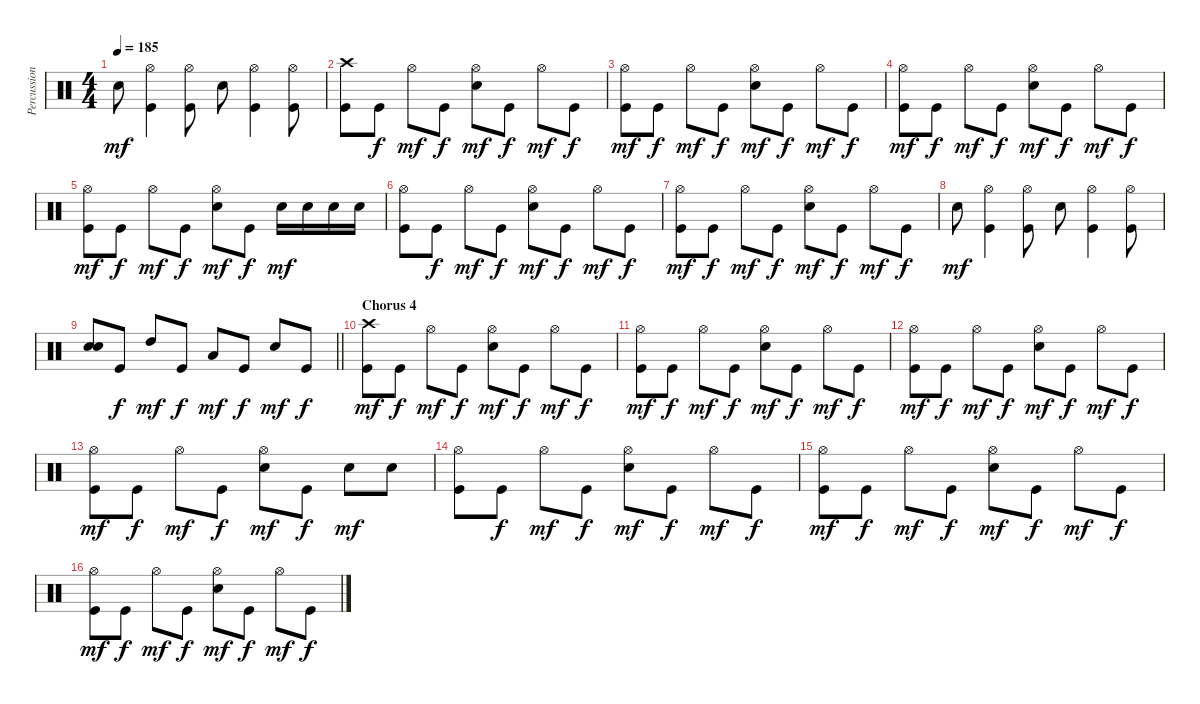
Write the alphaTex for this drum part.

\track ("Percussion" "Percussion") {instrument percussion}
\staff {score}
\articulation defaults
\ts (4 4)
\tempo 185
\clef neutral
\ks c "Snare (hit) 2".8{dy mf}
("Hi-Hat (open)" "Kick (hit)").4 ("Hi-Hat (open)" "Kick (hit)").8 "Snare (hit) 2".8 ("Kick (hit)" "Hi-Hat (open)").4 ("Kick (hit)" "Hi-Hat (open)").8 |
("Crash high (hit)" "Kick (hit)").8 "Kick (hit)".8{dy f} "Hi-Hat (open)".8{dy mf} "Kick (hit)".8{dy f} ("Snare (hit) 2" "Hi-Hat (open)").8{dy mf} "Kick (hit)".8{dy f} "Hi-Hat (open)".8{dy mf} "Kick (hit)".8{dy f} |
("Kick (hit)" "Hi-Hat (open)").8{dy mf} "Kick (hit)".8{dy f} "Hi-Hat (open)".8{dy mf} "Kick (hit)".8{dy f} ("Snare (hit) 2" "Hi-Hat (open)").8{dy mf} "Kick (hit)".8{dy f} "Hi-Hat (open)".8{dy mf} "Kick (hit)".8{dy f} |
("Hi-Hat (open)" "Kick (hit)").8{dy mf} "Kick (hit)".8{dy f} "Hi-Hat (open)".8{dy mf} "Kick (hit)".8{dy f} ("Snare (hit) 2" "Hi-Hat (open)").8{dy mf} "Kick (hit)".8{dy f} "Hi-Hat (open)".8{dy mf} "Kick (hit)".8{dy f} |
("Hi-Hat (open)" "Kick (hit)").8{dy mf} "Kick (hit)".8{dy f} "Hi-Hat (open)".8{dy mf} "Kick (hit)".8{dy f} ("Snare (hit) 2" "Hi-Hat (open)").8{dy mf} "Kick (hit)".8{dy f} "Snare (hit) 2".16{dy mf} "Snare (hit) 2".16 "Snare (hit) 2".16 "Snare (hit) 2".16 |
("Kick (hit)" "Hi-Hat (open)").8 "Kick (hit)".8{dy f} "Hi-Hat (open)".8{dy mf} "Kick (hit)".8{dy f} ("Snare (hit) 2" "Hi-Hat (open)").8{dy mf} "Kick (hit)".8{dy f} "Hi-Hat (open)".8{dy mf} "Kick (hit)".8{dy f} |
("Kick (hit)" "Hi-Hat (open)").8{dy mf} "Kick (hit)".8{dy f} "Hi-Hat (open)".8{dy mf} "Kick (hit)".8{dy f} ("Snare (hit) 2" "Hi-Hat (open)").8{dy mf} "Kick (hit)".8{dy f} "Hi-Hat (open)".8{dy mf} "Kick (hit)".8{dy f} |
"Snare (hit) 2".8{dy mf} ("Hi-Hat (open)" "Kick (hit)").4 ("Hi-Hat (open)" "Kick (hit)").8 "Snare (hit) 2".8 ("Kick (hit)" "Hi-Hat (open)").4 ("Kick (hit)" "Hi-Hat (open)").8 |
\barLineRight lightlight
("Snare (hit) 2" "Snare (hit) 2").8 "Kick (hit)".8{dy f} "High Tom (hit)".8{dy mf} "Kick (hit)".8{dy f} "Low Tom (hit)".8{dy mf} "Kick (hit)".8{dy f} "Snare (hit) 2".8{dy mf} "Kick (hit)".8{dy f} |
\section ("" "Chorus 4")
("Crash high (hit)" "Kick (hit)").8{dy mf} "Kick (hit)".8{dy f} "Hi-Hat (open)".8{dy mf} "Kick (hit)".8{dy f} ("Snare (hit) 2" "Hi-Hat (open)").8{dy mf} "Kick (hit)".8{dy f} "Hi-Hat (open)".8{dy mf} "Kick (hit)".8{dy f} |
("Kick (hit)" "Hi-Hat (open)").8{dy mf} "Kick (hit)".8{dy f} "Hi-Hat (open)".8{dy mf} "Kick (hit)".8{dy f} ("Snare (hit) 2" "Hi-Hat (open)").8{dy mf} "Kick (hit)".8{dy f} "Hi-Hat (open)".8{dy mf} "Kick (hit)".8{dy f} |
("Hi-Hat (open)" "Kick (hit)").8{dy mf} "Kick (hit)".8{dy f} "Hi-Hat (open)".8{dy mf} "Kick (hit)".8{dy f} ("Snare (hit) 2" "Hi-Hat (open)").8{dy mf} "Kick (hit)".8{dy f} "Hi-Hat (open)".8{dy mf} "Kick (hit)".8{dy f} |
("Hi-Hat (open)" "Kick (hit)").8{dy mf} "Kick (hit)".8{dy f} "Hi-Hat (open)".8{dy mf} "Kick (hit)".8{dy f} ("Snare (hit) 2" "Hi-Hat (open)").8{dy mf} "Kick (hit)".8{dy f} "Snare (hit) 2".8{dy mf} "Snare (hit) 2".8 |
("Hi-Hat (open)" "Kick (hit)").8 "Kick (hit)".8{dy f} "Hi-Hat (open)".8{dy mf} "Kick (hit)".8{dy f} ("Snare (hit) 2" "Hi-Hat (open)").8{dy mf} "Kick (hit)".8{dy f} "Hi-Hat (open)".8{dy mf} "Kick (hit)".8{dy f} |
("Hi-Hat (open)" "Kick (hit)").8{dy mf} "Kick (hit)".8{dy f} "Hi-Hat (open)".8{dy mf} "Kick (hit)".8{dy f} ("Snare (hit) 2" "Hi-Hat (open)").8{dy mf} "Kick (hit)".8{dy f} "Hi-Hat (open)".8{dy mf} "Kick (hit)".8{dy f} |
("Hi-Hat (open)" "Kick (hit)").8{dy mf} "Kick (hit)".8{dy f} "Hi-Hat (open)".8{dy mf} "Kick (hit)".8{dy f} ("Snare (hit) 2" "Hi-Hat (open)").8{dy mf} "Kick (hit)".8{dy f} "Hi-Hat (open)".8{dy mf} "Kick (hit)".8{dy f}
